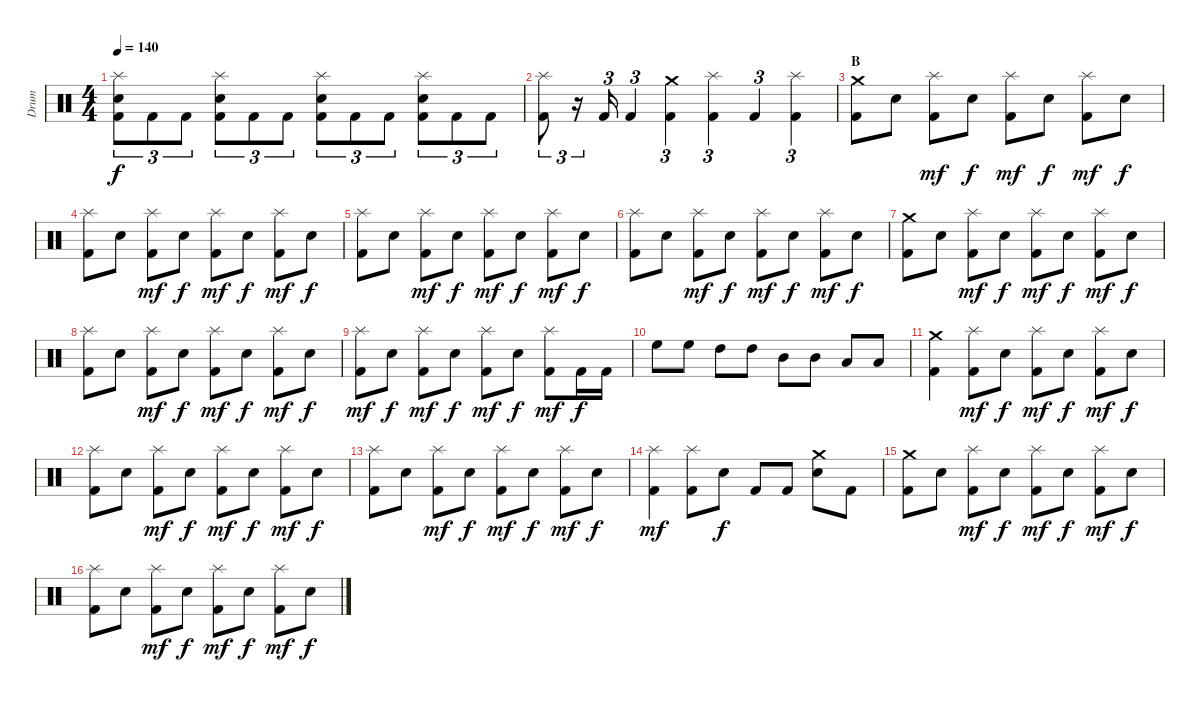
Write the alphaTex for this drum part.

\track ("Drum" "Drum") {instrument percussion}
\staff {score}
\articulation defaults
\ts (4 4)
\tempo 140
\clef neutral
\ks c
("Splash (hit)" "Electric Snare (hit)" "Kick (hit) 2").8{tu (3 2) dy f} "Kick (hit) 2".8{tu (3 2)} "Kick (hit) 2".8{tu (3 2)} ("Splash (hit)" "Electric Snare (hit)" "Kick (hit) 2").8{tu (3 2)} "Kick (hit) 2".8{tu (3 2)} "Kick (hit) 2".8{tu (3 2)} ("Splash (hit)" "Electric Snare (hit)" "Kick (hit) 2").8{tu (3 2)} "Kick (hit) 2".8{tu (3 2)} "Kick (hit) 2".8{tu (3 2)} ("Splash (hit)" "Electric Snare (hit)" "Kick (hit) 2").8{tu (3 2)} "Kick (hit) 2".8{tu (3 2)} "Kick (hit) 2".8{tu (3 2)} |
("Splash (hit)" "Kick (hit) 2").8{tu (3 2)} r.16{tu (3 2)} "Kick (hit) 2".16{tu (3 2)} "Kick (hit) 2".4{tu (3 2)} ("Crash medium (hit)" "Kick (hit) 2").4{tu (3 2)} ("Splash (hit)" "Kick (hit) 2").4{tu (3 2)} "Kick (hit) 2".4{tu (3 2)} ("Splash (hit)" "Kick (hit) 2").4{tu (3 2)} |
\section ("" "B")
("Crash medium (hit)" "Kick (hit) 2").8 "Electric Snare (hit)".8 ("Splash (hit)" "Kick (hit) 2").8{dy mf} "Electric Snare (hit)".8{dy f} ("Splash (hit)" "Kick (hit) 2").8{dy mf} "Electric Snare (hit)".8{dy f} ("Splash (hit)" "Kick (hit) 2").8{dy mf} "Electric Snare (hit)".8{dy f} |
("Splash (hit)" "Kick (hit) 2").8 "Electric Snare (hit)".8 ("Splash (hit)" "Kick (hit) 2").8{dy mf} "Electric Snare (hit)".8{dy f} ("Splash (hit)" "Kick (hit) 2").8{dy mf} "Electric Snare (hit)".8{dy f} ("Splash (hit)" "Kick (hit) 2").8{dy mf} "Electric Snare (hit)".8{dy f} |
("Splash (hit)" "Kick (hit) 2").8 "Electric Snare (hit)".8 ("Splash (hit)" "Kick (hit) 2").8{dy mf} "Electric Snare (hit)".8{dy f} ("Splash (hit)" "Kick (hit) 2").8{dy mf} "Electric Snare (hit)".8{dy f} ("Splash (hit)" "Kick (hit) 2").8{dy mf} "Electric Snare (hit)".8{dy f} |
("Splash (hit)" "Kick (hit) 2").8 "Electric Snare (hit)".8 ("Splash (hit)" "Kick (hit) 2").8{dy mf} "Electric Snare (hit)".8{dy f} ("Splash (hit)" "Kick (hit) 2").8{dy mf} "Electric Snare (hit)".8{dy f} ("Splash (hit)" "Kick (hit) 2").8{dy mf} "Electric Snare (hit)".8{dy f} |
("Crash medium (hit)" "Kick (hit) 2").8 "Electric Snare (hit)".8 ("Splash (hit)" "Kick (hit) 2").8{dy mf} "Electric Snare (hit)".8{dy f} ("Splash (hit)" "Kick (hit) 2").8{dy mf} "Electric Snare (hit)".8{dy f} ("Splash (hit)" "Kick (hit) 2").8{dy mf} "Electric Snare (hit)".8{dy f} |
("Splash (hit)" "Kick (hit) 2").8 "Electric Snare (hit)".8 ("Splash (hit)" "Kick (hit) 2").8{dy mf} "Electric Snare (hit)".8{dy f} ("Splash (hit)" "Kick (hit) 2").8{dy mf} "Electric Snare (hit)".8{dy f} ("Splash (hit)" "Kick (hit) 2").8{dy mf} "Electric Snare (hit)".8{dy f} |
("Splash (hit)" "Kick (hit) 2").8{dy mf} "Electric Snare (hit)".8{dy f} ("Splash (hit)" "Kick (hit) 2").8{dy mf} "Electric Snare (hit)".8{dy f} ("Splash (hit)" "Kick (hit) 2").8{dy mf} "Electric Snare (hit)".8{dy f} ("Splash (hit)" "Kick (hit) 2").8{dy mf} "Kick (hit) 2".16{dy f} "Kick (hit) 2".16 |
"High Floor Tom (hit)".8 "High Floor Tom (hit)".8 "High Tom (hit)".8 "High Tom (hit)".8 "Mid Tom (hit)".8 "Mid Tom (hit)".8 "Low Tom (hit)".8 "Low Tom (hit)".8 |
("Crash medium (hit)" "Kick (hit) 2").4 ("Splash (hit)" "Kick (hit) 2").8{dy mf} "Electric Snare (hit)".8{dy f} ("Splash (hit)" "Kick (hit) 2").8{dy mf} "Electric Snare (hit)".8{dy f} ("Splash (hit)" "Kick (hit) 2").8{dy mf} "Electric Snare (hit)".8{dy f} |
("Splash (hit)" "Kick (hit) 2").8 "Electric Snare (hit)".8 ("Splash (hit)" "Kick (hit) 2").8{dy mf} "Electric Snare (hit)".8{dy f} ("Splash (hit)" "Kick (hit) 2").8{dy mf} "Electric Snare (hit)".8{dy f} ("Splash (hit)" "Kick (hit) 2").8{dy mf} "Electric Snare (hit)".8{dy f} |
("Splash (hit)" "Kick (hit) 2").8 "Electric Snare (hit)".8 ("Splash (hit)" "Kick (hit) 2").8{dy mf} "Electric Snare (hit)".8{dy f} ("Splash (hit)" "Kick (hit) 2").8{dy mf} "Electric Snare (hit)".8{dy f} ("Splash (hit)" "Kick (hit) 2").8{dy mf} "Electric Snare (hit)".8{dy f} |
("Splash (hit)" "Kick (hit) 2").4{dy mf} ("Splash (hit)" "Kick (hit) 2").8 "Electric Snare (hit)".8{dy f} "Kick (hit) 2".8 "Kick (hit) 2".8 ("Crash medium (hit)" "Electric Snare (hit)").8 "Kick (hit) 2".8 |
("Crash medium (hit)" "Kick (hit) 2").8 "Electric Snare (hit)".8 ("Splash (hit)" "Kick (hit) 2").8{dy mf} "Electric Snare (hit)".8{dy f} ("Splash (hit)" "Kick (hit) 2").8{dy mf} "Electric Snare (hit)".8{dy f} ("Splash (hit)" "Kick (hit) 2").8{dy mf} "Electric Snare (hit)".8{dy f} |
("Splash (hit)" "Kick (hit) 2").8 "Electric Snare (hit)".8 ("Splash (hit)" "Kick (hit) 2").8{dy mf} "Electric Snare (hit)".8{dy f} ("Splash (hit)" "Kick (hit) 2").8{dy mf} "Electric Snare (hit)".8{dy f} ("Splash (hit)" "Kick (hit) 2").8{dy mf} "Electric Snare (hit)".8{dy f}
